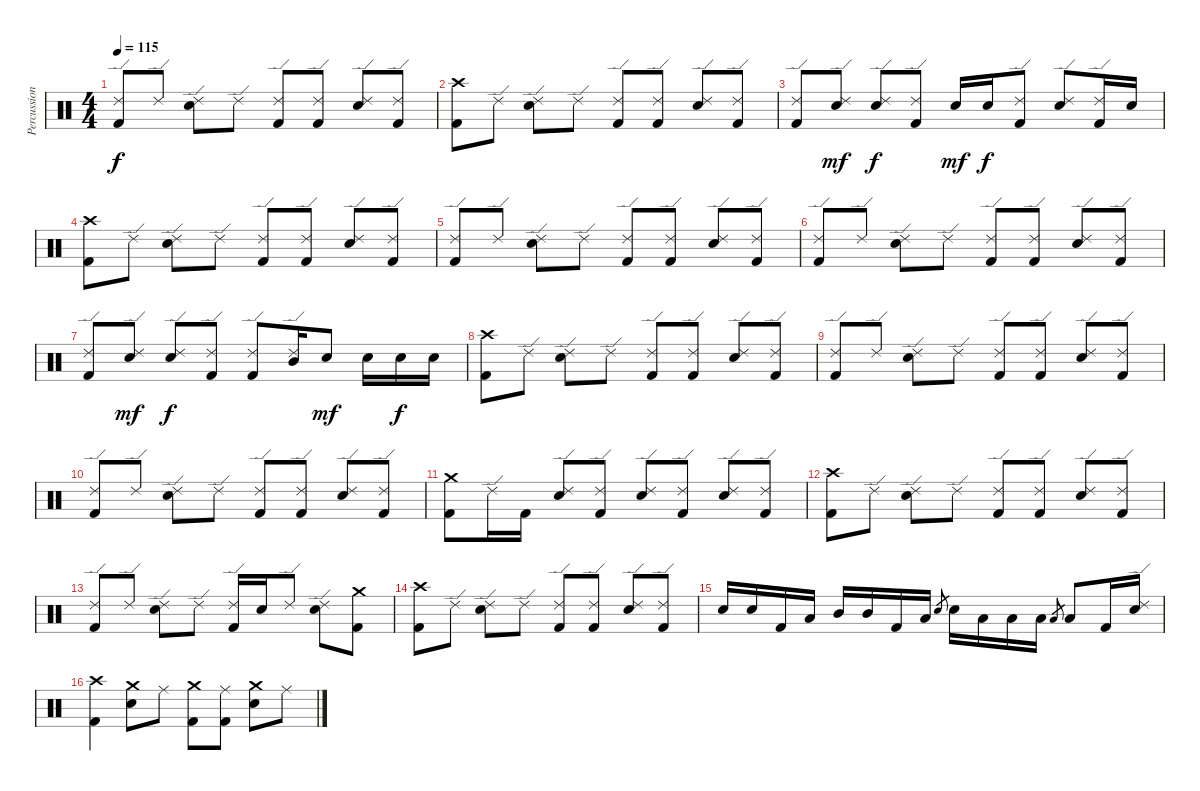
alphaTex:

\track ("Percussion" "Percussion") {instrument percussion}
\staff {score}
\articulation defaults
\ts (4 4)
\tempo 115
\clef neutral
\ks c
("Ride (edge) 2" "Kick (hit) 2").8{dy f} "Ride (edge) 2".8 ("Ride (edge) 2" "Electric Snare (hit)").8 "Ride (edge) 2".8 ("Ride (edge) 2" "Kick (hit) 2").8 ("Ride (edge) 2" "Kick (hit) 2").8 ("Ride (edge) 2" "Electric Snare (hit)").8 ("Ride (edge) 2" "Kick (hit) 2").8 |
("Crash high (hit)" "Kick (hit) 2").8 "Ride (edge) 2".8 ("Ride (edge) 2" "Electric Snare (hit)").8 "Ride (edge) 2".8 ("Ride (edge) 2" "Kick (hit) 2").8 ("Ride (edge) 2" "Kick (hit) 2").8 ("Ride (edge) 2" "Electric Snare (hit)").8 ("Ride (edge) 2" "Kick (hit) 2").8 |
("Ride (edge) 2" "Kick (hit) 2").8 ("Ride (edge) 2" "Electric Snare (hit)").8{dy mf} ("Ride (edge) 2" "Electric Snare (hit)").8{dy f} ("Ride (edge) 2" "Kick (hit) 2").8 "Electric Snare (hit)".16{dy mf} "Electric Snare (hit)".16{dy f} ("Ride (edge) 2" "Kick (hit) 2").8 ("Ride (edge) 2" "Electric Snare (hit)").8 ("Ride (edge) 2" "Kick (hit) 2").16 "Electric Snare (hit)".16 |
("Crash high (hit)" "Kick (hit) 2").8 "Ride (edge) 2".8 ("Ride (edge) 2" "Electric Snare (hit)").8 "Ride (edge) 2".8 ("Ride (edge) 2" "Kick (hit) 2").8 ("Ride (edge) 2" "Kick (hit) 2").8 ("Ride (edge) 2" "Electric Snare (hit)").8 ("Ride (edge) 2" "Kick (hit) 2").8 |
("Ride (edge) 2" "Kick (hit) 2").8 "Ride (edge) 2".8 ("Ride (edge) 2" "Electric Snare (hit)").8 "Ride (edge) 2".8 ("Ride (edge) 2" "Kick (hit) 2").8 ("Ride (edge) 2" "Kick (hit) 2").8 ("Ride (edge) 2" "Electric Snare (hit)").8 ("Ride (edge) 2" "Kick (hit) 2").8 |
("Ride (edge) 2" "Kick (hit) 2").8 "Ride (edge) 2".8 ("Ride (edge) 2" "Electric Snare (hit)").8 "Ride (edge) 2".8 ("Ride (edge) 2" "Kick (hit) 2").8 ("Ride (edge) 2" "Kick (hit) 2").8 ("Ride (edge) 2" "Electric Snare (hit)").8 ("Ride (edge) 2" "Kick (hit) 2").8 |
("Ride (edge) 2" "Kick (hit) 2").8 ("Ride (edge) 2" "Electric Snare (hit)").8{dy mf} ("Ride (edge) 2" "Electric Snare (hit)").8{dy f} ("Ride (edge) 2" "Kick (hit) 2").8 ("Ride (edge) 2" "Kick (hit) 2").8 ("Mid Tom (hit)" "Ride (edge) 2").16 "Electric Snare (hit)".8{dy mf} "Electric Snare (hit)".16 "Electric Snare (hit)".16{dy f} "Electric Snare (hit)".16 |
("Crash high (hit)" "Kick (hit) 2").8 "Ride (edge) 2".8 ("Ride (edge) 2" "Electric Snare (hit)").8 "Ride (edge) 2".8 ("Ride (edge) 2" "Kick (hit) 2").8 ("Ride (edge) 2" "Kick (hit) 2").8 ("Ride (edge) 2" "Electric Snare (hit)").8 ("Ride (edge) 2" "Kick (hit) 2").8 |
("Ride (edge) 2" "Kick (hit) 2").8 "Ride (edge) 2".8 ("Ride (edge) 2" "Electric Snare (hit)").8 "Ride (edge) 2".8 ("Ride (edge) 2" "Kick (hit) 2").8 ("Ride (edge) 2" "Kick (hit) 2").8 ("Ride (edge) 2" "Electric Snare (hit)").8 ("Ride (edge) 2" "Kick (hit) 2").8 |
("Ride (edge) 2" "Kick (hit) 2").8 "Ride (edge) 2".8 ("Ride (edge) 2" "Electric Snare (hit)").8 "Ride (edge) 2".8 ("Ride (edge) 2" "Kick (hit) 2").8 ("Ride (edge) 2" "Kick (hit) 2").8 ("Ride (edge) 2" "Electric Snare (hit)").8 ("Ride (edge) 2" "Kick (hit) 2").8 |
("Crash medium (hit)" "Kick (hit) 2").8 "Ride (edge) 2".16 "Kick (hit) 2".16 ("Ride (edge) 2" "Electric Snare (hit)").8 ("Ride (edge) 2" "Kick (hit) 2").8 ("Ride (edge) 2" "Electric Snare (hit)").8 ("Ride (edge) 2" "Kick (hit) 2").8 ("Ride (edge) 2" "Electric Snare (hit)").8 ("Ride (edge) 2" "Kick (hit) 2").8 |
("Crash high (hit)" "Kick (hit) 2").8 "Ride (edge) 2".8 ("Ride (edge) 2" "Electric Snare (hit)").8 "Ride (edge) 2".8 ("Ride (edge) 2" "Kick (hit) 2").8 ("Ride (edge) 2" "Kick (hit) 2").8 ("Ride (edge) 2" "Electric Snare (hit)").8 ("Ride (edge) 2" "Kick (hit) 2").8 |
("Ride (edge) 2" "Kick (hit) 2").8 "Ride (edge) 2".8 ("Ride (edge) 2" "Electric Snare (hit)").8 "Ride (edge) 2".8 ("Ride (edge) 2" "Kick (hit) 2").16 "Electric Snare (hit)".16 "Ride (edge) 2".8 ("Ride (edge) 2" "Electric Snare (hit)").8 ("Crash medium (hit)" "Kick (hit) 2").8 |
("Crash high (hit)" "Kick (hit) 2").8 "Ride (edge) 2".8 ("Ride (edge) 2" "Electric Snare (hit)").8 "Ride (edge) 2".8 ("Ride (edge) 2" "Kick (hit) 2").8 ("Ride (edge) 2" "Kick (hit) 2").8 ("Ride (edge) 2" "Electric Snare (hit)").8 ("Ride (edge) 2" "Kick (hit) 2").8 |
"Electric Snare (hit)".16 "Electric Snare (hit)".16 "Kick (hit) 2".16 "Low Floor Tom (hit)".16 "Mid Tom (hit)".16 "Mid Tom (hit)".16 "Kick (hit) 2".16 "Low Floor Tom (hit)".16 "Electric Snare (hit)".8{gr} "Electric Snare (hit)".16 "Low Floor Tom (hit)".16 "Low Tom (hit)".16 "Low Tom (hit)".16 "Low Tom (hit)".8{gr} "Low Floor Tom (hit)".8 "Kick (hit) 2".16 ("Ride (edge) 2" "Electric Snare (hit)").16 |
("Crash high (hit)" "Kick (hit) 2").4 ("Crash medium (hit)" "Electric Snare (hit)").8 "Ride (middle)".8 ("Crash medium (hit)" "Kick (hit) 2").8 ("Ride (middle)" "Kick (hit) 2").8 ("Crash medium (hit)" "Electric Snare (hit)").8 "Ride (middle)".8
